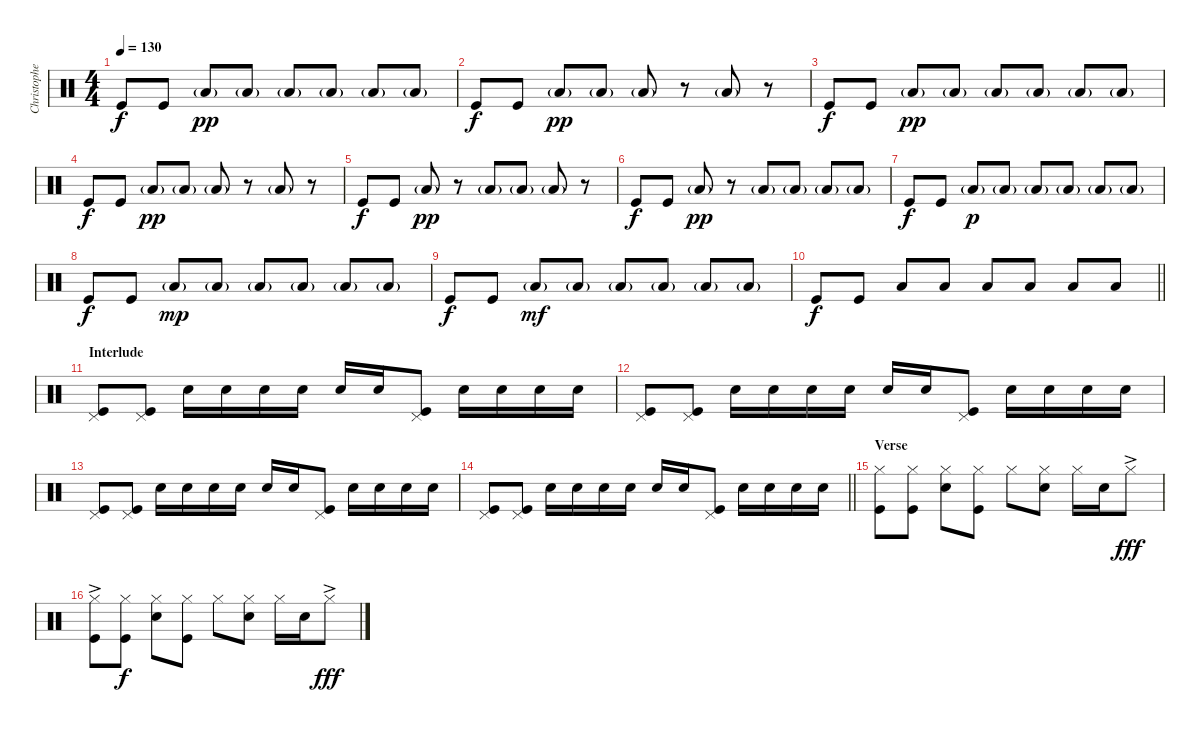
\track ("Christopher - Drums" "Christophe") {instrument percussion}
\staff {score}
\articulation defaults
\ts (4 4)
\tempo 130
\clef neutral
\ks c "Kick (hit)".8{dy f} "Kick (hit)".8 "Low Floor Tom (hit)"{g}.8{dy pp} "Low Floor Tom (hit)"{g}.8 "Low Floor Tom (hit)"{g}.8 "Low Floor Tom (hit)"{g}.8 "Low Floor Tom (hit)"{g}.8 "Low Floor Tom (hit)"{g}.8
|
"Kick (hit)".8{dy f} "Kick (hit)".8 "Low Floor Tom (hit)"{g}.8{dy pp} "Low Floor Tom (hit)"{g}.8 "Low Floor Tom (hit)"{g}.8 r.8 "Low Floor Tom (hit)"{g}.8 r.8 |
"Kick (hit)".8{dy f} "Kick (hit)".8 "Low Floor Tom (hit)"{g}.8{dy pp} "Low Floor Tom (hit)"{g}.8 "Low Floor Tom (hit)"{g}.8 "Low Floor Tom (hit)"{g}.8 "Low Floor Tom (hit)"{g}.8 "Low Floor Tom (hit)"{g}.8 |
"Kick (hit)".8{dy f} "Kick (hit)".8 "Low Floor Tom (hit)"{g}.8{dy pp} "Low Floor Tom (hit)"{g}.8 "Low Floor Tom (hit)"{g}.8 r.8 "Low Floor Tom (hit)"{g}.8 r.8 |
"Kick (hit)".8{dy f} "Kick (hit)".8 "Low Floor Tom (hit)"{g}.8{dy pp} r.8 "Low Floor Tom (hit)"{g}.8 "Low Floor Tom (hit)"{g}.8 "Low Floor Tom (hit)"{g}.8 r.8 |
"Kick (hit)".8{dy f} "Kick (hit)".8 "Low Floor Tom (hit)"{g}.8{dy pp} r.8 "Low Floor Tom (hit)"{g}.8 "Low Floor Tom (hit)"{g}.8 "Low Floor Tom (hit)"{g}.8 "Low Floor Tom (hit)"{g}.8 |
"Kick (hit)".8{dy f} "Kick (hit)".8 "Low Floor Tom (hit)"{g}.8{dy p} "Low Floor Tom (hit)"{g}.8 "Low Floor Tom (hit)"{g}.8 "Low Floor Tom (hit)"{g}.8 "Low Floor Tom (hit)"{g}.8 "Low Floor Tom (hit)"{g}.8 |
"Kick (hit)".8{dy f} "Kick (hit)".8 "Low Floor Tom (hit)"{g}.8{dy mp} "Low Floor Tom (hit)"{g}.8 "Low Floor Tom (hit)"{g}.8 "Low Floor Tom (hit)"{g}.8 "Low Floor Tom (hit)"{g}.8 "Low Floor Tom (hit)"{g}.8 |
"Kick (hit)".8{dy f} "Kick (hit)".8 "Low Floor Tom (hit)"{g}.8{dy mf} "Low Floor Tom (hit)"{g}.8 "Low Floor Tom (hit)"{g}.8 "Low Floor Tom (hit)"{g}.8 "Low Floor Tom (hit)"{g}.8 "Low Floor Tom (hit)"{g}.8 |
\barLineRight lightlight "Kick (hit)".8{dy f} "Kick (hit)".8 "Low Floor Tom (hit)".8 "Low Floor Tom (hit)".8 "Low Floor Tom (hit)".8 "Low Floor Tom (hit)".8 "Low Floor Tom (hit)".8 "Low Floor Tom (hit)".8
|
\section ("" "Interlude")
("Pedal Hi-Hat (hit)" "Kick (hit)").8 ("Pedal Hi-Hat (hit)" "Kick (hit)").8 "Snare (hit) 2".16 "Snare (hit) 2".16 "Snare (hit) 2".16 "Snare (hit) 2".16 "Snare (hit) 2".16 "Snare (hit) 2".16 ("Pedal Hi-Hat (hit)" "Kick (hit)").8 "Snare (hit) 2".16 "Snare (hit) 2".16 "Snare (hit) 2".16 "Snare (hit) 2".16 |
("Pedal Hi-Hat (hit)" "Kick (hit)").8 ("Pedal Hi-Hat (hit)" "Kick (hit)").8 "Snare (hit) 2".16 "Snare (hit) 2".16 "Snare (hit) 2".16 "Snare (hit) 2".16 "Snare (hit) 2".16 "Snare (hit) 2".16 ("Pedal Hi-Hat (hit)" "Kick (hit)").8 "Snare (hit) 2".16 "Snare (hit) 2".16 "Snare (hit) 2".16 "Snare (hit) 2".16 |
("Pedal Hi-Hat (hit)" "Kick (hit)").8 ("Pedal Hi-Hat (hit)" "Kick (hit)").8 "Snare (hit) 2".16 "Snare (hit) 2".16 "Snare (hit) 2".16 "Snare (hit) 2".16 "Snare (hit) 2".16 "Snare (hit) 2".16 ("Pedal Hi-Hat (hit)" "Kick (hit)").8 "Snare (hit) 2".16 "Snare (hit) 2".16 "Snare (hit) 2".16 "Snare (hit) 2".16 |
\barLineRight lightlight
("Pedal Hi-Hat (hit)" "Kick (hit)").8 ("Pedal Hi-Hat (hit)" "Kick (hit)").8 "Snare (hit) 2".16 "Snare (hit) 2".16 "Snare (hit) 2".16 "Snare (hit) 2".16 "Snare (hit) 2".16 "Snare (hit) 2".16 ("Pedal Hi-Hat (hit)" "Kick (hit)").8 "Snare (hit) 2".16 "Snare (hit) 2".16 "Snare (hit) 2".16 "Snare (hit) 2".16 |
\section ("" "Verse")
("Hi-Hat (closed)" "Kick (hit)").8 ("Hi-Hat (closed)" "Kick (hit)").8 ("Hi-Hat (closed)" "Snare (hit) 2").8 ("Hi-Hat (closed)" "Kick (hit)").8 "Hi-Hat (closed)".8 ("Hi-Hat (closed)" "Snare (hit) 2").8 "Hi-Hat (closed)".16 "Snare (hit) 2".16 "Hi-Hat (closed)"{ac}.8{dy fff} |
("Hi-Hat (closed)"{ac} "Kick (hit)").8 ("Hi-Hat (closed)" "Kick (hit)").8{dy f} ("Hi-Hat (closed)" "Snare (hit) 2").8 ("Hi-Hat (closed)" "Kick (hit)").8 "Hi-Hat (closed)".8 ("Hi-Hat (closed)" "Snare (hit) 2").8 "Hi-Hat (closed)".16 "Snare (hit) 2".16 "Hi-Hat (closed)"{ac}.8{dy fff}
